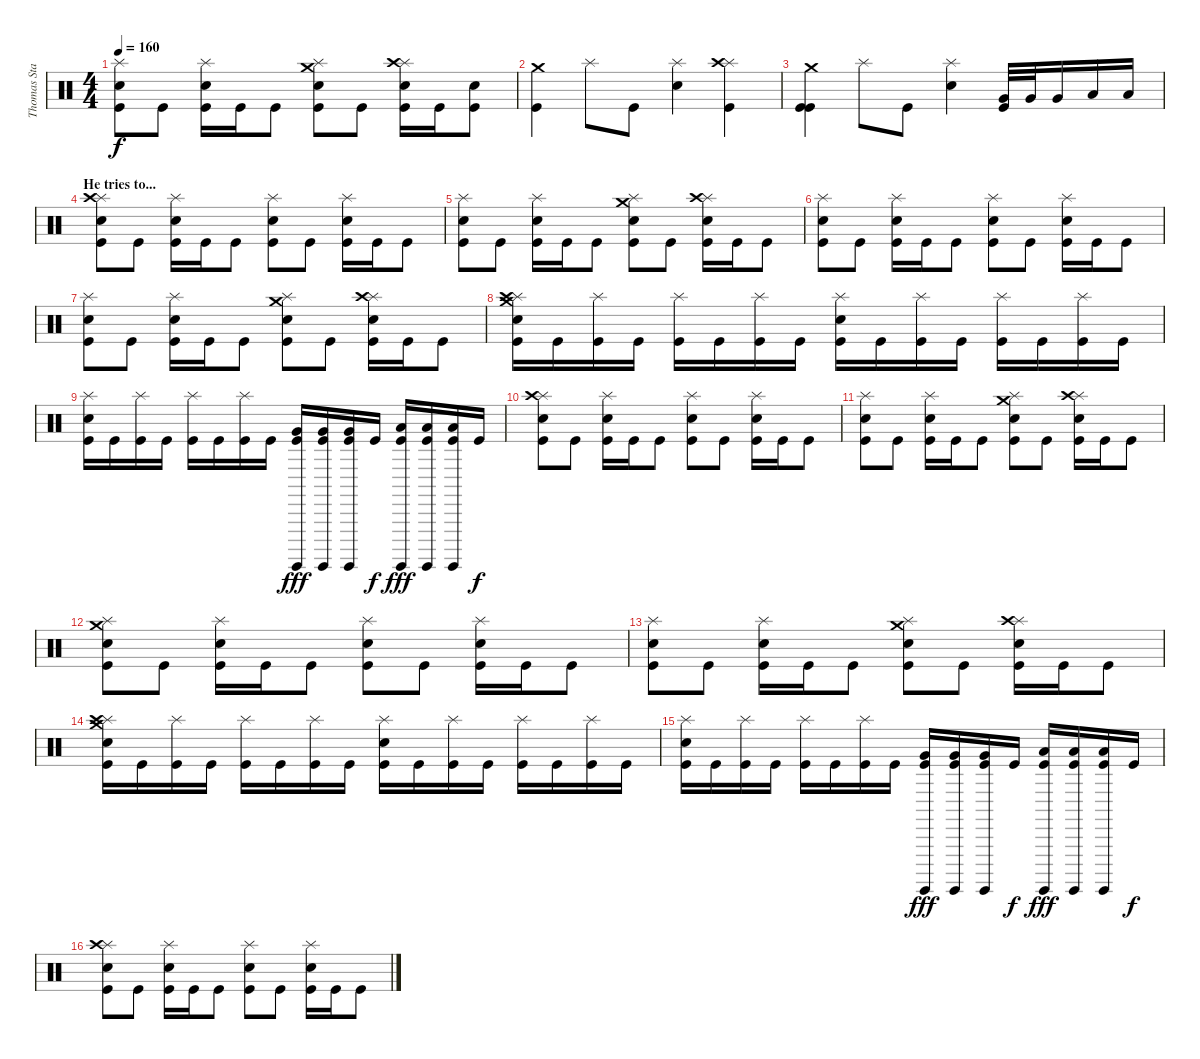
\track ("Thomas Stauch" "Thomas Sta") {instrument percussion}
\staff {score}
\articulation defaults
\ts (4 4)
\tempo 160
\clef neutral
\ks c
("Splash (hit)" "Electric Snare (hit)" "Kick (hit)").8{dy f} "Kick (hit)".8 ("Splash (hit)" "Electric Snare (hit)" "Kick (hit)").16 "Kick (hit)".16 "Kick (hit)".8 ("Crash medium (hit)" "Splash (hit)" "Electric Snare (hit)" "Kick (hit)").8 "Kick (hit)".8 ("Splash (hit)" "Crash high (hit)" "Electric Snare (hit)" "Kick (hit)").16 "Kick (hit)".16 ("Electric Snare (hit)" "Kick (hit)").8 |
("Crash medium (hit)" "Kick (hit)").4 "Splash (hit)".8 "Kick (hit)".8 ("Splash (hit)" "Electric Snare (hit)").4 ("Splash (hit)" "Crash high (hit)" "Kick (hit)").4 |
("Crash medium (hit)" "Kick (hit)" "Kick (hit)").4 "Splash (hit)".8 "Kick (hit)".8 ("Splash (hit)" "Electric Snare (hit)").4 ("Very Low Tom (hit)" "Kick (hit)").32 "Very Low Tom (hit)".32 "Very Low Tom (hit)".16 "Low Floor Tom (hit)".16 "Low Floor Tom (hit)".16 |
\section ("" "He tries to...")
("Splash (hit)" "Crash high (hit)" "Electric Snare (hit)" "Kick (hit)").8 "Kick (hit)".8 ("Splash (hit)" "Electric Snare (hit)" "Kick (hit)").16 "Kick (hit)".16 "Kick (hit)".8 ("Splash (hit)" "Electric Snare (hit)" "Kick (hit)").8 "Kick (hit)".8 ("Splash (hit)" "Electric Snare (hit)" "Kick (hit)").16 "Kick (hit)".16 "Kick (hit)".8 |
("Splash (hit)" "Electric Snare (hit)" "Kick (hit)").8 "Kick (hit)".8 ("Splash (hit)" "Electric Snare (hit)" "Kick (hit)").16 "Kick (hit)".16 "Kick (hit)".8 ("Crash medium (hit)" "Splash (hit)" "Electric Snare (hit)" "Kick (hit)").8 "Kick (hit)".8 ("Splash (hit)" "Crash high (hit)" "Electric Snare (hit)" "Kick (hit)").16 "Kick (hit)".16 "Kick (hit)".8 |
("Splash (hit)" "Electric Snare (hit)" "Kick (hit)").8 "Kick (hit)".8 ("Splash (hit)" "Electric Snare (hit)" "Kick (hit)").16 "Kick (hit)".16 "Kick (hit)".8 ("Splash (hit)" "Electric Snare (hit)" "Kick (hit)").8 "Kick (hit)".8 ("Splash (hit)" "Electric Snare (hit)" "Kick (hit)").16 "Kick (hit)".16 "Kick (hit)".8 |
("Splash (hit)" "Electric Snare (hit)" "Kick (hit)").8 "Kick (hit)".8 ("Splash (hit)" "Electric Snare (hit)" "Kick (hit)").16 "Kick (hit)".16 "Kick (hit)".8 ("Crash medium (hit)" "Splash (hit)" "Electric Snare (hit)" "Kick (hit)").8 "Kick (hit)".8 ("Splash (hit)" "Crash high (hit)" "Electric Snare (hit)" "Kick (hit)").16 "Kick (hit)".16 "Kick (hit)".8 |
("Crash medium (hit)" "Splash (hit)" "Crash high (hit)" "Electric Snare (hit)" "Kick (hit)").16 "Kick (hit)".16 ("Splash (hit)" "Kick (hit)").16 "Kick (hit)".16 ("Splash (hit)" "Kick (hit)").16 "Kick (hit)".16 ("Splash (hit)" "Kick (hit)").16 "Kick (hit)".16 ("Splash (hit)" "Electric Snare (hit)" "Kick (hit)").16 "Kick (hit)".16 ("Splash (hit)" "Kick (hit)").16 "Kick (hit)".16 ("Splash (hit)" "Kick (hit)").16 "Kick (hit)".16 ("Splash (hit)" "Kick (hit)").16 "Kick (hit)".16 |
("Splash (hit)" "Electric Snare (hit)" "Kick (hit)").16 "Kick (hit)".16 ("Splash (hit)" "Kick (hit)").16 "Kick (hit)".16 ("Splash (hit)" "Kick (hit)").16 "Kick (hit)".16 ("Splash (hit)" "Kick (hit)").16 "Kick (hit)".16 ("Surdo (hit)" "Very Low Tom (hit)" "Kick (hit)").16{dy fff} ("Surdo (hit)" "Very Low Tom (hit)" "Kick (hit)").16 ("Surdo (hit)" "Very Low Tom (hit)" "Kick (hit)").16 "Kick (hit)".16{dy f} ("Surdo (hit)" "Low Floor Tom (hit)" "Kick (hit)").16{dy fff} ("Surdo (hit)" "Low Floor Tom (hit)" "Kick (hit)").16 ("Surdo (hit)" "Low Floor Tom (hit)" "Kick (hit)").16 "Kick (hit)".16{dy f} |
("Splash (hit)" "Crash high (hit)" "Electric Snare (hit)" "Kick (hit)").8 "Kick (hit)".8 ("Splash (hit)" "Electric Snare (hit)" "Kick (hit)").16 "Kick (hit)".16 "Kick (hit)".8 ("Splash (hit)" "Electric Snare (hit)" "Kick (hit)").8 "Kick (hit)".8 ("Splash (hit)" "Electric Snare (hit)" "Kick (hit)").16 "Kick (hit)".16 "Kick (hit)".8 |
("Splash (hit)" "Electric Snare (hit)" "Kick (hit)").8 "Kick (hit)".8 ("Splash (hit)" "Electric Snare (hit)" "Kick (hit)").16 "Kick (hit)".16 "Kick (hit)".8 ("Crash medium (hit)" "Splash (hit)" "Electric Snare (hit)" "Kick (hit)").8 "Kick (hit)".8 ("Splash (hit)" "Crash high (hit)" "Electric Snare (hit)" "Kick (hit)").16 "Kick (hit)".16 "Kick (hit)".8 |
("Crash medium (hit)" "Splash (hit)" "Electric Snare (hit)" "Kick (hit)").8 "Kick (hit)".8 ("Splash (hit)" "Electric Snare (hit)" "Kick (hit)").16 "Kick (hit)".16 "Kick (hit)".8 ("Splash (hit)" "Electric Snare (hit)" "Kick (hit)").8 "Kick (hit)".8 ("Splash (hit)" "Electric Snare (hit)" "Kick (hit)").16 "Kick (hit)".16 "Kick (hit)".8 |
("Splash (hit)" "Electric Snare (hit)" "Kick (hit)").8 "Kick (hit)".8 ("Splash (hit)" "Electric Snare (hit)" "Kick (hit)").16 "Kick (hit)".16 "Kick (hit)".8 ("Crash medium (hit)" "Splash (hit)" "Electric Snare (hit)" "Kick (hit)").8 "Kick (hit)".8 ("Splash (hit)" "Crash high (hit)" "Electric Snare (hit)" "Kick (hit)").16 "Kick (hit)".16 "Kick (hit)".8 |
("Crash medium (hit)" "Splash (hit)" "Crash high (hit)" "Electric Snare (hit)" "Kick (hit)").16 "Kick (hit)".16 ("Splash (hit)" "Kick (hit)").16 "Kick (hit)".16 ("Splash (hit)" "Kick (hit)").16 "Kick (hit)".16 ("Splash (hit)" "Kick (hit)").16 "Kick (hit)".16 ("Splash (hit)" "Electric Snare (hit)" "Kick (hit)").16 "Kick (hit)".16 ("Splash (hit)" "Kick (hit)").16 "Kick (hit)".16 ("Splash (hit)" "Kick (hit)").16 "Kick (hit)".16 ("Splash (hit)" "Kick (hit)").16 "Kick (hit)".16 |
("Splash (hit)" "Electric Snare (hit)" "Kick (hit)").16 "Kick (hit)".16 ("Splash (hit)" "Kick (hit)").16 "Kick (hit)".16 ("Splash (hit)" "Kick (hit)").16 "Kick (hit)".16 ("Splash (hit)" "Kick (hit)").16 "Kick (hit)".16 ("Surdo (hit)" "Very Low Tom (hit)" "Kick (hit)").16{dy fff} ("Surdo (hit)" "Very Low Tom (hit)" "Kick (hit)").16 ("Surdo (hit)" "Very Low Tom (hit)" "Kick (hit)").16 "Kick (hit)".16{dy f} ("Surdo (hit)" "Low Floor Tom (hit)" "Kick (hit)").16{dy fff} ("Surdo (hit)" "Low Floor Tom (hit)" "Kick (hit)").16 ("Surdo (hit)" "Low Floor Tom (hit)" "Kick (hit)").16 "Kick (hit)".16{dy f} |
("Splash (hit)" "Crash high (hit)" "Electric Snare (hit)" "Kick (hit)").8 "Kick (hit)".8 ("Splash (hit)" "Electric Snare (hit)" "Kick (hit)").16 "Kick (hit)".16 "Kick (hit)".8 ("Splash (hit)" "Electric Snare (hit)" "Kick (hit)").8 "Kick (hit)".8 ("Splash (hit)" "Electric Snare (hit)" "Kick (hit)").16 "Kick (hit)".16 "Kick (hit)".8
